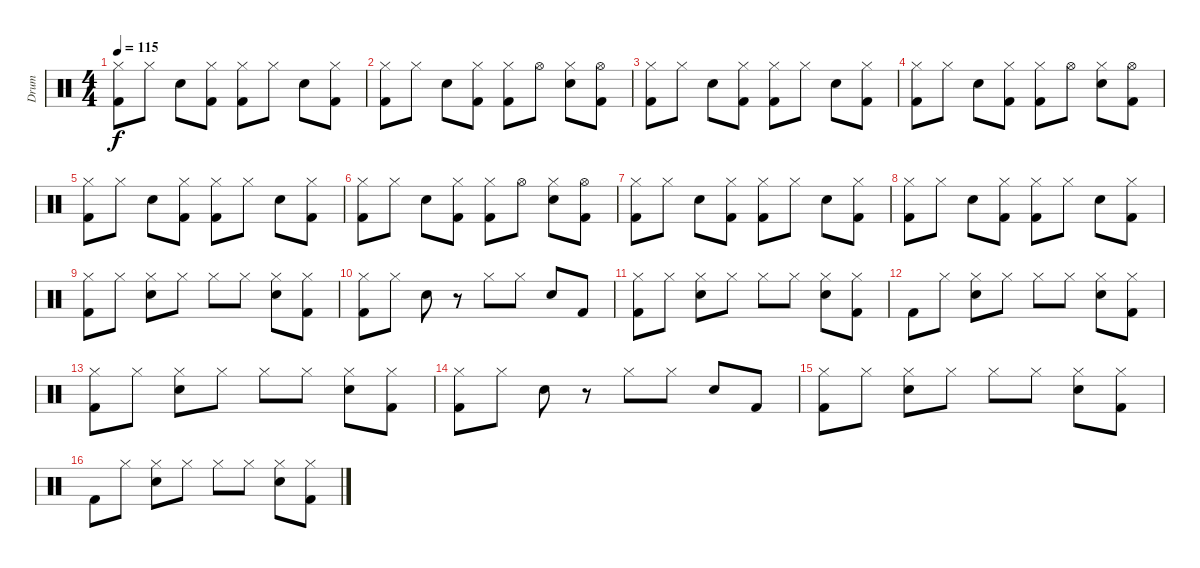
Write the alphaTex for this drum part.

\track ("Drum" "Drum") {instrument percussion}
\staff {score}
\articulation defaults
\ts (4 4)
\tempo 115
\clef neutral
\ks c
("Hi-Hat (closed)" "Kick (hit) 2").8{dy f} "Hi-Hat (closed)".8 "Electric Snare (hit)".8 ("Hi-Hat (closed)" "Kick (hit) 2").8 ("Hi-Hat (closed)" "Kick (hit) 2").8 "Hi-Hat (closed)".8 "Electric Snare (hit)".8 ("Hi-Hat (closed)" "Kick (hit) 2").8 |
("Hi-Hat (closed)" "Kick (hit) 2").8 "Hi-Hat (closed)".8 "Electric Snare (hit)".8 ("Hi-Hat (closed)" "Kick (hit) 2").8 ("Hi-Hat (closed)" "Kick (hit) 2").8 "Hi-Hat (open)".8 ("Hi-Hat (closed)" "Electric Snare (hit)").8 ("Hi-Hat (open)" "Kick (hit) 2").8 |
("Hi-Hat (closed)" "Kick (hit) 2").8 "Hi-Hat (closed)".8 "Electric Snare (hit)".8 ("Hi-Hat (closed)" "Kick (hit) 2").8 ("Hi-Hat (closed)" "Kick (hit) 2").8 "Hi-Hat (closed)".8 "Electric Snare (hit)".8 ("Hi-Hat (closed)" "Kick (hit) 2").8 |
("Hi-Hat (closed)" "Kick (hit) 2").8 "Hi-Hat (closed)".8 "Electric Snare (hit)".8 ("Hi-Hat (closed)" "Kick (hit) 2").8 ("Hi-Hat (closed)" "Kick (hit) 2").8 "Hi-Hat (open)".8 ("Hi-Hat (closed)" "Electric Snare (hit)").8 ("Hi-Hat (open)" "Kick (hit) 2").8 |
("Hi-Hat (closed)" "Kick (hit) 2").8 "Hi-Hat (closed)".8 "Electric Snare (hit)".8 ("Hi-Hat (closed)" "Kick (hit) 2").8 ("Hi-Hat (closed)" "Kick (hit) 2").8 "Hi-Hat (closed)".8 "Electric Snare (hit)".8 ("Hi-Hat (closed)" "Kick (hit) 2").8 |
("Hi-Hat (closed)" "Kick (hit) 2").8 "Hi-Hat (closed)".8 "Electric Snare (hit)".8 ("Hi-Hat (closed)" "Kick (hit) 2").8 ("Hi-Hat (closed)" "Kick (hit) 2").8 "Hi-Hat (open)".8 ("Hi-Hat (closed)" "Electric Snare (hit)").8 ("Hi-Hat (open)" "Kick (hit) 2").8 |
("Hi-Hat (closed)" "Kick (hit) 2").8 "Hi-Hat (closed)".8 "Electric Snare (hit)".8 ("Hi-Hat (closed)" "Kick (hit) 2").8 ("Hi-Hat (closed)" "Kick (hit) 2").8 "Hi-Hat (closed)".8 "Electric Snare (hit)".8 ("Hi-Hat (closed)" "Kick (hit) 2").8 |
("Hi-Hat (closed)" "Kick (hit) 2").8 "Hi-Hat (closed)".8 "Electric Snare (hit)".8 ("Hi-Hat (closed)" "Kick (hit) 2").8 ("Hi-Hat (closed)" "Kick (hit) 2").8 "Hi-Hat (closed)".8 "Electric Snare (hit)".8 ("Hi-Hat (closed)" "Kick (hit) 2").8 |
("Hi-Hat (closed)" "Kick (hit) 2").8 "Hi-Hat (closed)".8 ("Hi-Hat (closed)" "Snare (hit) 2").8 "Hi-Hat (closed)".8 "Hi-Hat (closed)".8 "Hi-Hat (closed)".8 ("Hi-Hat (closed)" "Snare (hit) 2").8 ("Hi-Hat (closed)" "Kick (hit) 2").8 |
("Hi-Hat (closed)" "Kick (hit) 2").8 "Hi-Hat (closed)".8 "Snare (hit) 2".8 r.8 "Hi-Hat (closed)".8 "Hi-Hat (closed)".8 "Snare (hit) 2".8 "Kick (hit) 2".8 |
("Hi-Hat (closed)" "Kick (hit) 2").8 "Hi-Hat (closed)".8 ("Hi-Hat (closed)" "Snare (hit) 2").8 "Hi-Hat (closed)".8 "Hi-Hat (closed)".8 "Hi-Hat (closed)".8 ("Hi-Hat (closed)" "Snare (hit) 2").8 ("Hi-Hat (closed)" "Kick (hit) 2").8 |
"Kick (hit) 2".8 "Hi-Hat (closed)".8 ("Hi-Hat (closed)" "Snare (hit) 2").8 "Hi-Hat (closed)".8 "Hi-Hat (closed)".8 "Hi-Hat (closed)".8 ("Hi-Hat (closed)" "Snare (hit) 2").8 ("Hi-Hat (closed)" "Kick (hit) 2").8 |
("Hi-Hat (closed)" "Kick (hit) 2").8 "Hi-Hat (closed)".8 ("Hi-Hat (closed)" "Snare (hit) 2").8 "Hi-Hat (closed)".8 "Hi-Hat (closed)".8 "Hi-Hat (closed)".8 ("Hi-Hat (closed)" "Snare (hit) 2").8 ("Hi-Hat (closed)" "Kick (hit) 2").8 |
("Hi-Hat (closed)" "Kick (hit) 2").8 "Hi-Hat (closed)".8 "Snare (hit) 2".8 r.8 "Hi-Hat (closed)".8 "Hi-Hat (closed)".8 "Snare (hit) 2".8 "Kick (hit) 2".8 |
("Hi-Hat (closed)" "Kick (hit) 2").8 "Hi-Hat (closed)".8 ("Hi-Hat (closed)" "Snare (hit) 2").8 "Hi-Hat (closed)".8 "Hi-Hat (closed)".8 "Hi-Hat (closed)".8 ("Hi-Hat (closed)" "Snare (hit) 2").8 ("Hi-Hat (closed)" "Kick (hit) 2").8 |
"Kick (hit) 2".8 "Hi-Hat (closed)".8 ("Hi-Hat (closed)" "Snare (hit) 2").8 "Hi-Hat (closed)".8 "Hi-Hat (closed)".8 "Hi-Hat (closed)".8 ("Hi-Hat (closed)" "Snare (hit) 2").8 ("Hi-Hat (closed)" "Kick (hit) 2").8
